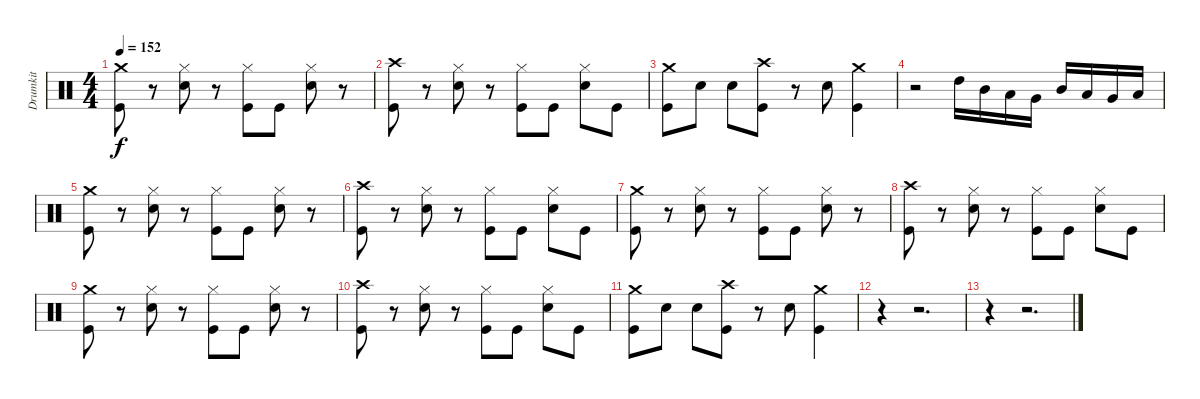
\track ("Drumkit" "Drumkit") {instrument percussion}
\staff {score}
\articulation defaults
\ts (4 4)
\tempo 152
\clef neutral
\ks c
("Crash medium (hit)" "Kick (hit)").8{dy f} r.8 ("Hi-Hat (closed)" "Snare (hit) 2").8 r.8 ("Hi-Hat (closed)" "Kick (hit)").8 "Kick (hit)".8 ("Hi-Hat (closed)" "Snare (hit) 2").8 r.8 |
("Crash high (hit)" "Kick (hit)").8 r.8 ("Hi-Hat (closed)" "Snare (hit) 2").8 r.8 ("Hi-Hat (closed)" "Kick (hit)").8 "Kick (hit)".8 ("Hi-Hat (closed)" "Snare (hit) 2").8 "Kick (hit)".8 |
("Crash medium (hit)" "Kick (hit)").8 "Snare (hit) 2".8 "Snare (hit) 2".8 ("Crash high (hit)" "Kick (hit)").8 r.8 "Snare (hit) 2".8 ("Crash medium (hit)" "Kick (hit)").4 |
r.2 "High Tom (hit)".16 "Mid Tom (hit)".16 "Low Tom (hit)".16 "Very Low Tom (hit)".16 "Mid Tom (hit)".16 "Low Tom (hit)".16 "Very Low Tom (hit)".16 "Low Floor Tom (hit)".16 |
("Crash medium (hit)" "Kick (hit)").8 r.8 ("Hi-Hat (closed)" "Snare (hit) 2").8 r.8 ("Hi-Hat (closed)" "Kick (hit)").8 "Kick (hit)".8 ("Hi-Hat (closed)" "Snare (hit) 2").8 r.8 |
("Crash high (hit)" "Kick (hit)").8 r.8 ("Hi-Hat (closed)" "Snare (hit) 2").8 r.8 ("Hi-Hat (closed)" "Kick (hit)").8 "Kick (hit)".8 ("Hi-Hat (closed)" "Snare (hit) 2").8 "Kick (hit)".8 |
("Crash medium (hit)" "Kick (hit)").8 r.8 ("Hi-Hat (closed)" "Snare (hit) 2").8 r.8 ("Hi-Hat (closed)" "Kick (hit)").8 "Kick (hit)".8 ("Hi-Hat (closed)" "Snare (hit) 2").8 r.8 |
("Crash high (hit)" "Kick (hit)").8 r.8 ("Hi-Hat (closed)" "Snare (hit) 2").8 r.8 ("Hi-Hat (closed)" "Kick (hit)").8 "Kick (hit)".8 ("Hi-Hat (closed)" "Snare (hit) 2").8 "Kick (hit)".8 |
("Crash medium (hit)" "Kick (hit)").8 r.8 ("Hi-Hat (closed)" "Snare (hit) 2").8 r.8 ("Hi-Hat (closed)" "Kick (hit)").8 "Kick (hit)".8 ("Hi-Hat (closed)" "Snare (hit) 2").8 r.8 |
("Crash high (hit)" "Kick (hit)").8 r.8 ("Hi-Hat (closed)" "Snare (hit) 2").8 r.8 ("Hi-Hat (closed)" "Kick (hit)").8 "Kick (hit)".8 ("Hi-Hat (closed)" "Snare (hit) 2").8 "Kick (hit)".8 |
("Crash medium (hit)" "Kick (hit)").8 "Snare (hit) 2".8 "Snare (hit) 2".8 ("Crash high (hit)" "Kick (hit)").8 r.8 "Snare (hit) 2".8 ("Crash medium (hit)" "Kick (hit)").4 |
r.4 r.2{d} |
r.4 r.2{d}
